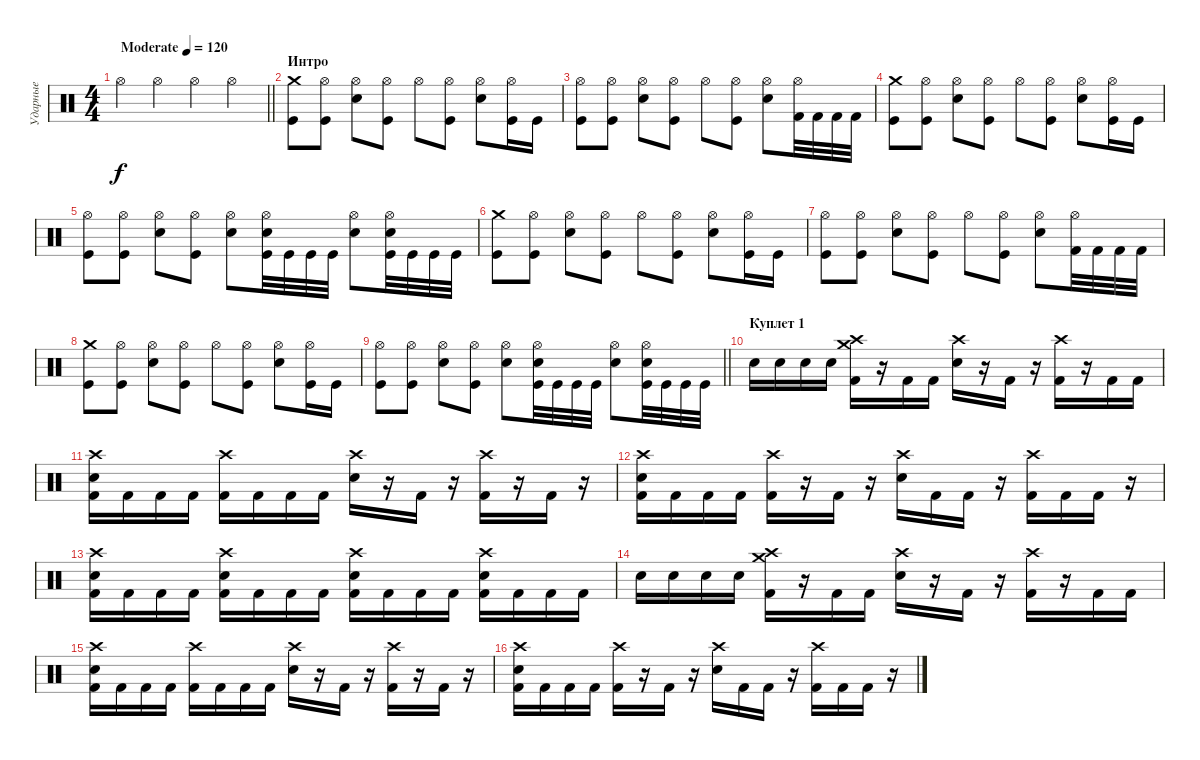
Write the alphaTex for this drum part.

\track ("Ударные" "Ударные") {instrument percussion}
\staff {score}
\articulation defaults
\ts (4 4)
\tempo (120 "Moderate")
\tempo 100
\tempo (120 "Moderate")
\clef neutral
\barLineRight lightlight
\ks c "Hi-Hat (open)".4{dy f} "Hi-Hat (open)".4 "Hi-Hat (open)".4 "Hi-Hat (open)".4
|
\section ("" "Интро")
("Crash medium (hit)" "Kick (hit)").8 ("Hi-Hat (open)" "Kick (hit)").8 ("Hi-Hat (open)" "Electric Snare (hit)").8 ("Hi-Hat (open)" "Kick (hit)").8 "Hi-Hat (open)".8 ("Hi-Hat (open)" "Kick (hit)").8 ("Hi-Hat (open)" "Electric Snare (hit)").8 ("Hi-Hat (open)" "Kick (hit)").16 "Kick (hit)".16 |
("Hi-Hat (open)" "Kick (hit)").8 ("Hi-Hat (open)" "Kick (hit)").8 ("Hi-Hat (open)" "Electric Snare (hit)").8 ("Hi-Hat (open)" "Kick (hit)").8 "Hi-Hat (open)".8 ("Hi-Hat (open)" "Kick (hit)").8 ("Hi-Hat (open)" "Electric Snare (hit)").8 ("Hi-Hat (open)" "Kick (hit) 2").32 "Kick (hit) 2".32 "Kick (hit) 2".32 "Kick (hit) 2".32 |
("Crash medium (hit)" "Kick (hit)").8 ("Hi-Hat (open)" "Kick (hit)").8 ("Hi-Hat (open)" "Electric Snare (hit)").8 ("Hi-Hat (open)" "Kick (hit)").8 "Hi-Hat (open)".8 ("Hi-Hat (open)" "Kick (hit)").8 ("Hi-Hat (open)" "Electric Snare (hit)").8 ("Hi-Hat (open)" "Kick (hit)").16 "Kick (hit)".16 |
("Hi-Hat (open)" "Kick (hit)").8 ("Hi-Hat (open)" "Kick (hit)").8 ("Hi-Hat (open)" "Electric Snare (hit)").8 ("Hi-Hat (open)" "Kick (hit)").8 ("Hi-Hat (open)" "Electric Snare (hit)").8 ("Hi-Hat (open)" "Electric Snare (hit)" "Kick (hit)").32 "Kick (hit)".32 "Kick (hit)".32 "Kick (hit)".32 ("Hi-Hat (open)" "Electric Snare (hit)").8 ("Hi-Hat (open)" "Electric Snare (hit)" "Kick (hit)").32 "Kick (hit)".32 "Kick (hit)".32 "Kick (hit)".32 |
("Crash medium (hit)" "Kick (hit)").8 ("Hi-Hat (open)" "Kick (hit)").8 ("Hi-Hat (open)" "Electric Snare (hit)").8 ("Hi-Hat (open)" "Kick (hit)").8 "Hi-Hat (open)".8 ("Hi-Hat (open)" "Kick (hit)").8 ("Hi-Hat (open)" "Electric Snare (hit)").8 ("Hi-Hat (open)" "Kick (hit)").16 "Kick (hit)".16 |
("Hi-Hat (open)" "Kick (hit)").8 ("Hi-Hat (open)" "Kick (hit)").8 ("Hi-Hat (open)" "Electric Snare (hit)").8 ("Hi-Hat (open)" "Kick (hit)").8 "Hi-Hat (open)".8 ("Hi-Hat (open)" "Kick (hit)").8 ("Hi-Hat (open)" "Electric Snare (hit)").8 ("Hi-Hat (open)" "Kick (hit) 2").32 "Kick (hit) 2".32 "Kick (hit) 2".32 "Kick (hit) 2".32 |
("Crash medium (hit)" "Kick (hit)").8 ("Hi-Hat (open)" "Kick (hit)").8 ("Hi-Hat (open)" "Electric Snare (hit)").8 ("Hi-Hat (open)" "Kick (hit)").8 "Hi-Hat (open)".8 ("Hi-Hat (open)" "Kick (hit)").8 ("Hi-Hat (open)" "Electric Snare (hit)").8 ("Hi-Hat (open)" "Kick (hit)").16 "Kick (hit)".16 |
\barLineRight lightlight
("Hi-Hat (open)" "Kick (hit)").8 ("Hi-Hat (open)" "Kick (hit)").8 ("Hi-Hat (open)" "Electric Snare (hit)").8 ("Hi-Hat (open)" "Kick (hit)").8 ("Hi-Hat (open)" "Electric Snare (hit)").8 ("Hi-Hat (open)" "Electric Snare (hit)" "Kick (hit)").32 "Kick (hit)".32 "Kick (hit)".32 "Kick (hit)".32 ("Hi-Hat (open)" "Electric Snare (hit)").8 ("Hi-Hat (open)" "Electric Snare (hit)" "Kick (hit)").32 "Kick (hit)".32 "Kick (hit)".32 "Kick (hit)".32 |
\section ("" "Куплет 1")
"Electric Snare (hit)".16 "Electric Snare (hit)".16 "Electric Snare (hit)".16 "Electric Snare (hit)".16 ("Crash medium (hit)" "Crash high (hit)" "Kick (hit) 2").16 r.16 "Kick (hit) 2".16 "Kick (hit) 2".16 ("Crash high (hit)" "Electric Snare (hit)").16 r.16 "Kick (hit) 2".16 r.16 ("Crash high (hit)" "Kick (hit) 2").16 r.16 "Kick (hit) 2".16 "Kick (hit) 2".16 |
("Crash high (hit)" "Electric Snare (hit)" "Kick (hit) 2").16 "Kick (hit) 2".16 "Kick (hit) 2".16 "Kick (hit) 2".16 ("Crash high (hit)" "Kick (hit) 2").16 "Kick (hit) 2".16 "Kick (hit) 2".16 "Kick (hit) 2".16 ("Crash high (hit)" "Electric Snare (hit)").16 r.16 "Kick (hit) 2".16 r.16 ("Crash high (hit)" "Kick (hit) 2").16 r.16 "Kick (hit) 2".16 r.16 |
("Crash high (hit)" "Electric Snare (hit)" "Kick (hit) 2").16 "Kick (hit) 2".16 "Kick (hit) 2".16 "Kick (hit) 2".16 ("Crash high (hit)" "Kick (hit) 2").16 r.16 "Kick (hit) 2".16 r.16 ("Crash high (hit)" "Electric Snare (hit)").16 "Kick (hit) 2".16 "Kick (hit) 2".16 r.16 ("Crash high (hit)" "Kick (hit) 2").16 "Kick (hit) 2".16 "Kick (hit) 2".16 r.16 |
("Crash high (hit)" "Electric Snare (hit)" "Kick (hit) 2").16 "Kick (hit) 2".16 "Kick (hit) 2".16 "Kick (hit) 2".16 ("Crash high (hit)" "Electric Snare (hit)" "Kick (hit) 2").16 "Kick (hit) 2".16 "Kick (hit) 2".16 "Kick (hit) 2".16 ("Crash high (hit)" "Electric Snare (hit)" "Kick (hit) 2").16 "Kick (hit) 2".16 "Kick (hit) 2".16 "Kick (hit) 2".16 ("Crash high (hit)" "Electric Snare (hit)" "Kick (hit) 2").16 "Kick (hit) 2".16 "Kick (hit) 2".16 "Kick (hit) 2".16 |
"Electric Snare (hit)".16 "Electric Snare (hit)".16 "Electric Snare (hit)".16 "Electric Snare (hit)".16 ("Crash medium (hit)" "Crash high (hit)" "Kick (hit) 2").16 r.16 "Kick (hit) 2".16 "Kick (hit) 2".16 ("Crash high (hit)" "Electric Snare (hit)").16 r.16 "Kick (hit) 2".16 r.16 ("Crash high (hit)" "Kick (hit) 2").16 r.16 "Kick (hit) 2".16 "Kick (hit) 2".16 |
("Crash high (hit)" "Electric Snare (hit)" "Kick (hit) 2").16 "Kick (hit) 2".16 "Kick (hit) 2".16 "Kick (hit) 2".16 ("Crash high (hit)" "Kick (hit) 2").16 "Kick (hit) 2".16 "Kick (hit) 2".16 "Kick (hit) 2".16 ("Crash high (hit)" "Electric Snare (hit)").16 r.16 "Kick (hit) 2".16 r.16 ("Crash high (hit)" "Kick (hit) 2").16 r.16 "Kick (hit) 2".16 r.16 |
("Crash high (hit)" "Electric Snare (hit)" "Kick (hit) 2").16 "Kick (hit) 2".16 "Kick (hit) 2".16 "Kick (hit) 2".16 ("Crash high (hit)" "Kick (hit) 2").16 r.16 "Kick (hit) 2".16 r.16 ("Crash high (hit)" "Electric Snare (hit)").16 "Kick (hit) 2".16 "Kick (hit) 2".16 r.16 ("Crash high (hit)" "Kick (hit) 2").16 "Kick (hit) 2".16 "Kick (hit) 2".16 r.16
